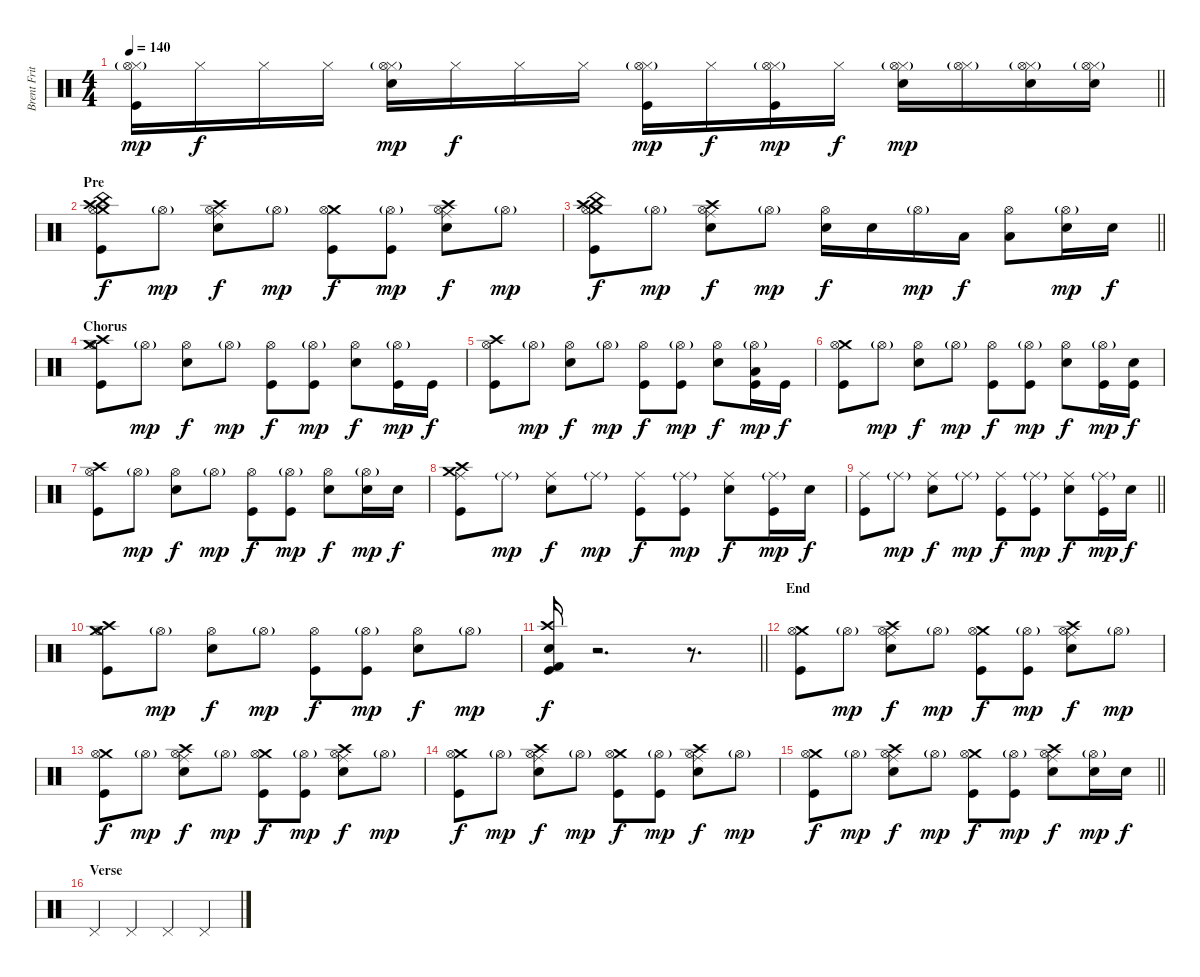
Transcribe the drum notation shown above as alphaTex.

\track ("Brent Fritz" "Brent Frit") {instrument percussion}
\staff {score}
\articulation defaults
\ts (4 4)
\tempo 140
\clef neutral
\barLineRight lightlight
\ks c
("Hi-Hat (closed)" "Hi-Hat (open)"{g} "Kick (hit)").16{dy mp} "Hi-Hat (closed)".16{dy f} "Hi-Hat (closed)".16 "Hi-Hat (closed)".16 ("Hi-Hat (closed)" "Hi-Hat (open)"{g} "Electric Snare (hit)").16{dy mp} "Hi-Hat (closed)".16{dy f} "Hi-Hat (closed)".16 "Hi-Hat (closed)".16 ("Hi-Hat (closed)" "Hi-Hat (open)"{g} "Kick (hit)").16{dy mp} "Hi-Hat (closed)".16{dy f} ("Hi-Hat (closed)" "Hi-Hat (open)"{g} "Kick (hit)").16{dy mp} "Hi-Hat (closed)".16{dy f} ("Hi-Hat (closed)" "Hi-Hat (open)"{g} "Electric Snare (hit)").16{dy mp} ("Hi-Hat (closed)" "Hi-Hat (open)"{g}).16 ("Hi-Hat (closed)" "Hi-Hat (open)"{g} "Electric Snare (hit)").16 ("Hi-Hat (closed)" "Hi-Hat (open)"{g} "Electric Snare (hit)").16 |
\section ("" "Pre")
("Crash high (hit)" "Crash medium (hit)" "Hi-Hat (open)" "China (hit)" "Kick (hit)").8{dy f} "Hi-Hat (open)"{g}.8{dy mp} ("Crash high (hit)" "Ride (middle)" "Hi-Hat (open)" "Electric Snare (hit)").8{dy f} "Hi-Hat (open)"{g}.8{dy mp} ("Crash medium (hit)" "Hi-Hat (open)" "Kick (hit)").8{dy f} ("Hi-Hat (open)"{g} "Kick (hit)").8{dy mp} ("Crash high (hit)" "Ride (middle)" "Hi-Hat (open)" "Electric Snare (hit)").8{dy f} "Hi-Hat (open)"{g}.8{dy mp} |
\barLineRight lightlight
("Crash high (hit)" "Crash medium (hit)" "Hi-Hat (open)" "China (hit)" "Kick (hit)").8{dy f} "Hi-Hat (open)"{g}.8{dy mp} ("Crash high (hit)" "Ride (middle)" "Hi-Hat (open)" "Electric Snare (hit)").8{dy f} "Hi-Hat (open)"{g}.8{dy mp} ("Hi-Hat (open)" "Electric Snare (hit)").16{dy f} "Electric Snare (hit)".16 "Hi-Hat (open)"{g}.16{dy mp} "Low Tom (hit)".16{dy f} ("Hi-Hat (open)" "Low Floor Tom (hit)").8 ("Hi-Hat (open)"{g} "Electric Snare (hit)").16{dy mp} "Electric Snare (hit)".16{dy f} |
\section ("" "Chorus")
("Crash medium (hit)" "Crash high (hit)" "Hi-Hat (open)" "Kick (hit)").8 "Hi-Hat (open)"{g}.8{dy mp} ("Hi-Hat (open)" "Electric Snare (hit)").8{dy f} "Hi-Hat (open)"{g}.8{dy mp} ("Hi-Hat (open)" "Kick (hit)").8{dy f} ("Hi-Hat (open)"{g} "Kick (hit)").8{dy mp} ("Hi-Hat (open)" "Electric Snare (hit)").8{dy f} ("Hi-Hat (open)"{g} "Kick (hit)").16{dy mp} "Kick (hit)".16{dy f} |
("Crash high (hit)" "Hi-Hat (open)" "Kick (hit)").8 "Hi-Hat (open)"{g}.8{dy mp} ("Hi-Hat (open)" "Electric Snare (hit)").8{dy f} "Hi-Hat (open)"{g}.8{dy mp} ("Hi-Hat (open)" "Kick (hit)").8{dy f} ("Hi-Hat (open)"{g} "Kick (hit)").8{dy mp} ("Hi-Hat (open)" "Electric Snare (hit)").8{dy f} ("Hi-Hat (open)"{g} "Low Tom (hit)" "Kick (hit)").16{dy mp} "Kick (hit)".16{dy f} |
("Crash medium (hit)" "Hi-Hat (open)" "Kick (hit)").8 "Hi-Hat (open)"{g}.8{dy mp} ("Hi-Hat (open)" "Electric Snare (hit)").8{dy f} "Hi-Hat (open)"{g}.8{dy mp} ("Hi-Hat (open)" "Kick (hit)").8{dy f} ("Hi-Hat (open)"{g} "Kick (hit)").8{dy mp} ("Hi-Hat (open)" "Electric Snare (hit)").8{dy f} ("Hi-Hat (open)"{g} "Kick (hit)").16{dy mp} ("Electric Snare (hit)" "Kick (hit)").16{dy f} |
("Crash high (hit)" "Hi-Hat (open)" "Kick (hit)").8 "Hi-Hat (open)"{g}.8{dy mp} ("Hi-Hat (open)" "Electric Snare (hit)").8{dy f} "Hi-Hat (open)"{g}.8{dy mp} ("Hi-Hat (open)" "Kick (hit)").8{dy f} ("Hi-Hat (open)"{g} "Kick (hit)").8{dy mp} ("Hi-Hat (open)" "Electric Snare (hit)").8{dy f} ("Hi-Hat (open)"{g} "Electric Snare (hit)").16{dy mp} "Electric Snare (hit)".16{dy f} |
("Crash medium (hit)" "Crash high (hit)" "Ride (middle)" "Kick (hit)").8 "Ride (middle)"{g}.8{dy mp} ("Ride (middle)" "Electric Snare (hit)").8{dy f} "Ride (middle)"{g}.8{dy mp} ("Ride (middle)" "Kick (hit)").8{dy f} ("Ride (middle)"{g} "Kick (hit)").8{dy mp} ("Ride (middle)" "Electric Snare (hit)").8{dy f} ("Ride (middle)"{g} "Kick (hit)").16{dy mp} "Electric Snare (hit)".16{dy f} |
\barLineRight lightlight
("Ride (middle)" "Kick (hit)").8 "Ride (middle)"{g}.8{dy mp} ("Ride (middle)" "Electric Snare (hit)").8{dy f} "Ride (middle)"{g}.8{dy mp} ("Ride (middle)" "Kick (hit)").8{dy f} ("Ride (middle)"{g} "Kick (hit)").8{dy mp} ("Ride (middle)" "Electric Snare (hit)").8{dy f} ("Ride (middle)"{g} "Kick (hit)").16{dy mp} "Electric Snare (hit)".16{dy f} |
("Crash high (hit)" "Crash medium (hit)" "Hi-Hat (open)" "Kick (hit)").8 "Hi-Hat (open)"{g}.8{dy mp} ("Hi-Hat (open)" "Electric Snare (hit)").8{dy f} "Hi-Hat (open)"{g}.8{dy mp} ("Hi-Hat (open)" "Kick (hit)").8{dy f} ("Hi-Hat (open)"{g} "Kick (hit)").8{dy mp} ("Hi-Hat (open)" "Electric Snare (hit)").8{dy f} "Hi-Hat (open)"{g}.8{dy mp} |
\barLineRight lightlight
("Crash high (hit)" "Electric Snare (hit)" "Kick (hit) 2" "Kick (hit)").16{dy f} r.2{d} r.8{d} |
\section ("" "End")
("Crash medium (hit)" "Hi-Hat (open)" "Kick (hit)").8 "Hi-Hat (open)"{g}.8{dy mp} ("Crash high (hit)" "Ride (middle)" "Hi-Hat (open)" "Electric Snare (hit)").8{dy f} "Hi-Hat (open)"{g}.8{dy mp} ("Crash medium (hit)" "Hi-Hat (open)" "Kick (hit)").8{dy f} ("Hi-Hat (open)"{g} "Kick (hit)").8{dy mp} ("Crash high (hit)" "Ride (middle)" "Hi-Hat (open)" "Electric Snare (hit)").8{dy f} "Hi-Hat (open)"{g}.8{dy mp} |
("Crash medium (hit)" "Hi-Hat (open)" "Kick (hit)").8{dy f} "Hi-Hat (open)"{g}.8{dy mp} ("Crash high (hit)" "Ride (middle)" "Hi-Hat (open)" "Electric Snare (hit)").8{dy f} "Hi-Hat (open)"{g}.8{dy mp} ("Crash medium (hit)" "Hi-Hat (open)" "Kick (hit)").8{dy f} ("Hi-Hat (open)"{g} "Kick (hit)").8{dy mp} ("Crash high (hit)" "Ride (middle)" "Hi-Hat (open)" "Electric Snare (hit)").8{dy f} "Hi-Hat (open)"{g}.8{dy mp} |
("Crash medium (hit)" "Hi-Hat (open)" "Kick (hit)").8{dy f} "Hi-Hat (open)"{g}.8{dy mp} ("Crash high (hit)" "Ride (middle)" "Hi-Hat (open)" "Electric Snare (hit)").8{dy f} "Hi-Hat (open)"{g}.8{dy mp} ("Crash medium (hit)" "Hi-Hat (open)" "Kick (hit)").8{dy f} ("Hi-Hat (open)"{g} "Kick (hit)").8{dy mp} ("Crash high (hit)" "Ride (middle)" "Hi-Hat (open)" "Electric Snare (hit)").8{dy f} "Hi-Hat (open)"{g}.8{dy mp} |
\barLineRight lightlight
("Crash medium (hit)" "Hi-Hat (open)" "Kick (hit)").8{dy f} "Hi-Hat (open)"{g}.8{dy mp} ("Crash high (hit)" "Ride (middle)" "Hi-Hat (open)" "Electric Snare (hit)").8{dy f} "Hi-Hat (open)"{g}.8{dy mp} ("Crash medium (hit)" "Hi-Hat (open)" "Kick (hit)").8{dy f} ("Hi-Hat (open)"{g} "Kick (hit)").8{dy mp} ("Crash high (hit)" "Ride (middle)" "Hi-Hat (open)" "Electric Snare (hit)").8{dy f} ("Hi-Hat (open)"{g} "Electric Snare (hit)").16{dy mp} "Electric Snare (hit)".16{dy f} |
\section ("" "Verse")
"Pedal Hi-Hat (hit)".4 "Pedal Hi-Hat (hit)".4 "Pedal Hi-Hat (hit)".4 "Pedal Hi-Hat (hit)".4
